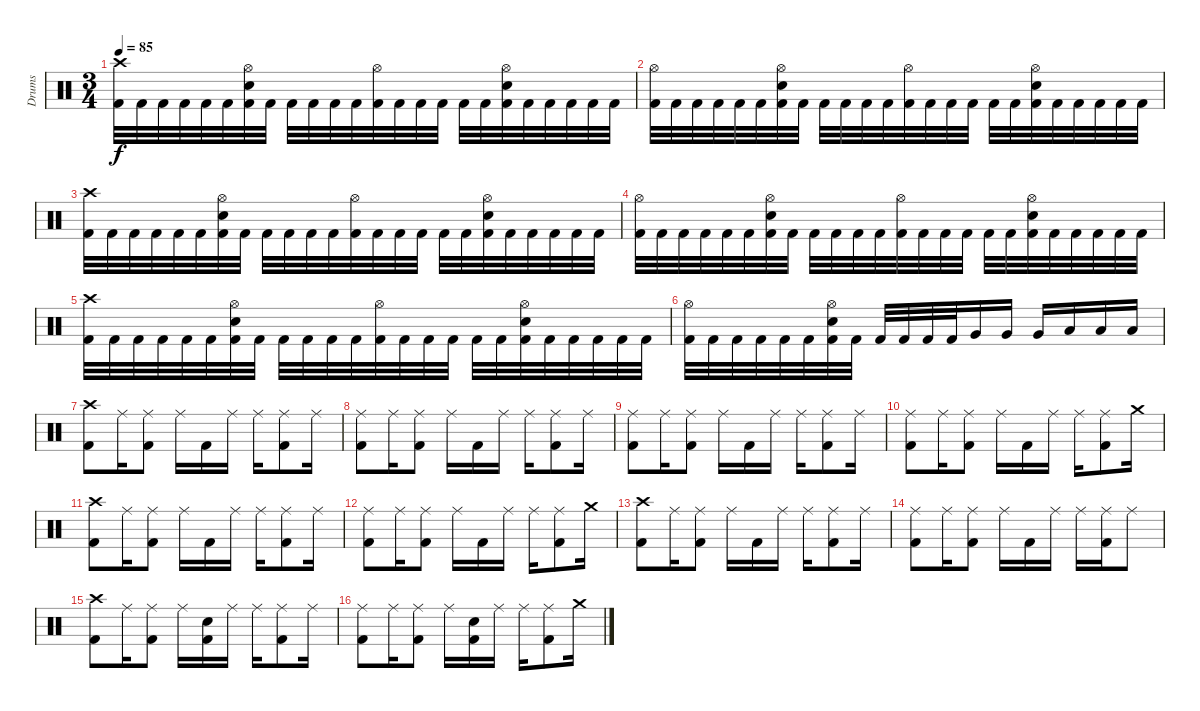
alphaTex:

\track ("Drums" "Drums") {instrument percussion}
\staff {score}
\articulation defaults
\ts (3 4)
\tempo 85
\clef neutral
\ks c
("Crash high (hit)" "Kick (hit) 2").32{dy f} "Kick (hit) 2".32 "Kick (hit) 2".32 "Kick (hit) 2".32 "Kick (hit) 2".32 "Kick (hit) 2".32 ("Snare (hit) 2" "Hi-Hat (open)" "Kick (hit) 2").32 "Kick (hit) 2".32 "Kick (hit) 2".32 "Kick (hit) 2".32 "Kick (hit) 2".32 "Kick (hit) 2".32 ("Hi-Hat (open)" "Kick (hit) 2").32 "Kick (hit) 2".32 "Kick (hit) 2".32 "Kick (hit) 2".32 "Kick (hit) 2".32 "Kick (hit) 2".32 ("Snare (hit) 2" "Hi-Hat (open)" "Kick (hit) 2").32 "Kick (hit) 2".32 "Kick (hit) 2".32 "Kick (hit) 2".32 "Kick (hit) 2".32 "Kick (hit) 2".32 |
("Hi-Hat (open)" "Kick (hit) 2").32 "Kick (hit) 2".32 "Kick (hit) 2".32 "Kick (hit) 2".32 "Kick (hit) 2".32 "Kick (hit) 2".32 ("Snare (hit) 2" "Hi-Hat (open)" "Kick (hit) 2").32 "Kick (hit) 2".32 "Kick (hit) 2".32 "Kick (hit) 2".32 "Kick (hit) 2".32 "Kick (hit) 2".32 ("Hi-Hat (open)" "Kick (hit) 2").32 "Kick (hit) 2".32 "Kick (hit) 2".32 "Kick (hit) 2".32 "Kick (hit) 2".32 "Kick (hit) 2".32 ("Snare (hit) 2" "Hi-Hat (open)" "Kick (hit) 2").32 "Kick (hit) 2".32 "Kick (hit) 2".32 "Kick (hit) 2".32 "Kick (hit) 2".32 "Kick (hit) 2".32 |
("Crash high (hit)" "Kick (hit) 2").32 "Kick (hit) 2".32 "Kick (hit) 2".32 "Kick (hit) 2".32 "Kick (hit) 2".32 "Kick (hit) 2".32 ("Snare (hit) 2" "Hi-Hat (open)" "Kick (hit) 2").32 "Kick (hit) 2".32 "Kick (hit) 2".32 "Kick (hit) 2".32 "Kick (hit) 2".32 "Kick (hit) 2".32 ("Hi-Hat (open)" "Kick (hit) 2").32 "Kick (hit) 2".32 "Kick (hit) 2".32 "Kick (hit) 2".32 "Kick (hit) 2".32 "Kick (hit) 2".32 ("Snare (hit) 2" "Hi-Hat (open)" "Kick (hit) 2").32 "Kick (hit) 2".32 "Kick (hit) 2".32 "Kick (hit) 2".32 "Kick (hit) 2".32 "Kick (hit) 2".32 |
("Hi-Hat (open)" "Kick (hit) 2").32 "Kick (hit) 2".32 "Kick (hit) 2".32 "Kick (hit) 2".32 "Kick (hit) 2".32 "Kick (hit) 2".32 ("Snare (hit) 2" "Hi-Hat (open)" "Kick (hit) 2").32 "Kick (hit) 2".32 "Kick (hit) 2".32 "Kick (hit) 2".32 "Kick (hit) 2".32 "Kick (hit) 2".32 ("Hi-Hat (open)" "Kick (hit) 2").32 "Kick (hit) 2".32 "Kick (hit) 2".32 "Kick (hit) 2".32 "Kick (hit) 2".32 "Kick (hit) 2".32 ("Snare (hit) 2" "Hi-Hat (open)" "Kick (hit) 2").32 "Kick (hit) 2".32 "Kick (hit) 2".32 "Kick (hit) 2".32 "Kick (hit) 2".32 "Kick (hit) 2".32 |
("Crash high (hit)" "Kick (hit) 2").32 "Kick (hit) 2".32 "Kick (hit) 2".32 "Kick (hit) 2".32 "Kick (hit) 2".32 "Kick (hit) 2".32 ("Snare (hit) 2" "Hi-Hat (open)" "Kick (hit) 2").32 "Kick (hit) 2".32 "Kick (hit) 2".32 "Kick (hit) 2".32 "Kick (hit) 2".32 "Kick (hit) 2".32 ("Hi-Hat (open)" "Kick (hit) 2").32 "Kick (hit) 2".32 "Kick (hit) 2".32 "Kick (hit) 2".32 "Kick (hit) 2".32 "Kick (hit) 2".32 ("Snare (hit) 2" "Hi-Hat (open)" "Kick (hit) 2").32 "Kick (hit) 2".32 "Kick (hit) 2".32 "Kick (hit) 2".32 "Kick (hit) 2".32 "Kick (hit) 2".32 |
("Hi-Hat (open)" "Kick (hit) 2").32 "Kick (hit) 2".32 "Kick (hit) 2".32 "Kick (hit) 2".32 "Kick (hit) 2".32 "Kick (hit) 2".32 ("Snare (hit) 2" "Hi-Hat (open)" "Kick (hit) 2").32 "Kick (hit) 2".32 "Kick (hit) 2".32 "Kick (hit) 2".32 "Kick (hit) 2".32 "Kick (hit) 2".32 "Very Low Tom (hit)".16 "Very Low Tom (hit)".16 "Very Low Tom (hit)".16 "Low Floor Tom (hit)".16 "Low Floor Tom (hit)".16 "Low Floor Tom (hit)".16 |
("Crash high (hit)" "Kick (hit) 2").8 "Ride (middle)".16 ("Ride (middle)" "Kick (hit) 2").8 "Ride (middle)".16 "Kick (hit) 2".16 "Ride (middle)".16 "Ride (middle)".16 ("Ride (middle)" "Kick (hit) 2").8 "Ride (middle)".16 |
("Ride (middle)" "Kick (hit) 2").8 "Ride (middle)".16 ("Ride (middle)" "Kick (hit) 2").8 "Ride (middle)".16 "Kick (hit) 2".16 "Ride (middle)".16 "Ride (middle)".16 ("Ride (middle)" "Kick (hit) 2").8 "Ride (middle)".16 |
("Ride (middle)" "Kick (hit) 2").8 "Ride (middle)".16 ("Ride (middle)" "Kick (hit) 2").8 "Ride (middle)".16 "Kick (hit) 2".16 "Ride (middle)".16 "Ride (middle)".16 ("Ride (middle)" "Kick (hit) 2").8 "Ride (middle)".16 |
("Ride (middle)" "Kick (hit) 2").8 "Ride (middle)".16 ("Ride (middle)" "Kick (hit) 2").8 "Ride (middle)".16 "Kick (hit) 2".16 "Ride (middle)".16 "Ride (middle)".16 ("Ride (middle)" "Kick (hit) 2").8 "Crash medium (hit)".16 |
("Crash high (hit)" "Kick (hit) 2").8 "Ride (middle)".16 ("Ride (middle)" "Kick (hit) 2").8 "Ride (middle)".16 "Kick (hit) 2".16 "Ride (middle)".16 "Ride (middle)".16 ("Ride (middle)" "Kick (hit) 2").8 "Ride (middle)".16 |
("Ride (middle)" "Kick (hit) 2").8 "Ride (middle)".16 ("Ride (middle)" "Kick (hit) 2").8 "Ride (middle)".16 "Kick (hit) 2".16 "Ride (middle)".16 "Ride (middle)".16 ("Ride (middle)" "Kick (hit) 2").8 "Crash medium (hit)".16 |
("Crash high (hit)" "Kick (hit) 2").8 "Ride (middle)".16 ("Ride (middle)" "Kick (hit) 2").8 "Ride (middle)".16 "Kick (hit) 2".16 "Ride (middle)".16 "Ride (middle)".16 ("Ride (middle)" "Kick (hit) 2").8 "Ride (middle)".16 |
("Ride (middle)" "Kick (hit) 2").8 "Ride (middle)".16 ("Ride (middle)" "Kick (hit) 2").8 "Ride (middle)".16 "Kick (hit) 2".16 "Ride (middle)".16 "Ride (middle)".16 ("Ride (middle)" "Kick (hit) 2").16 "Ride (middle)".8 |
("Crash high (hit)" "Kick (hit) 2").8 "Ride (middle)".16 ("Ride (middle)" "Kick (hit) 2").8 "Ride (middle)".16 ("Snare (hit) 2" "Kick (hit) 2").16 "Ride (middle)".16 "Ride (middle)".16 ("Ride (middle)" "Kick (hit) 2").8 "Ride (middle)".16 |
("Ride (middle)" "Kick (hit) 2").8 "Ride (middle)".16 ("Ride (middle)" "Kick (hit) 2").8 "Ride (middle)".16 ("Snare (hit) 2" "Kick (hit) 2").16 "Ride (middle)".16 "Ride (middle)".16 ("Ride (middle)" "Kick (hit) 2").8 "Crash medium (hit)".16
